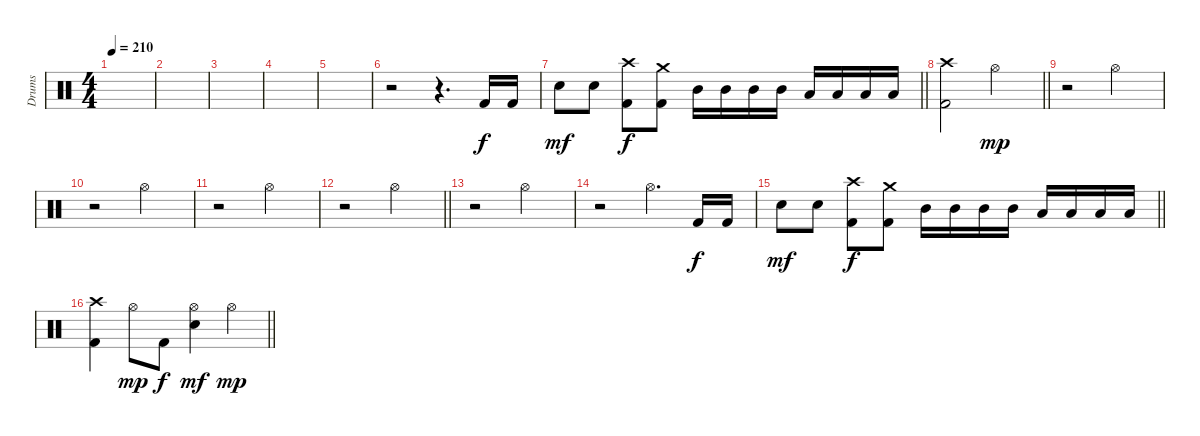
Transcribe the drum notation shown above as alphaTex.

\track ("Drums" "Drums") {instrument percussion}
\staff {score}
\articulation defaults
\ts (4 4)
\tempo 210
\clef neutral
\ks c
|
|
|
|
|
r.2 r.4{d} "Kick (hit) 2".16 "Kick (hit) 2".16 |
\barLineRight lightlight "Electric Snare (hit)".8{dy mf} "Electric Snare (hit)".8
("Crash high (hit)" "Kick (hit) 2").8{dy f} ("Crash medium (hit)" "Kick (hit) 2").8 "Mid Tom (hit)".16 "Mid Tom (hit)".16 "Mid Tom (hit)".16 "Mid Tom (hit)".16 "Low Tom (hit)".16 "Low Tom (hit)".16 "Low Tom (hit)".16 "Low Tom (hit)".16 |
\barLineRight lightlight
("Crash high (hit)" "Kick (hit) 2").2 "Hi-Hat (open)".2{dy mp} |
r.2 "Hi-Hat (open)".2 |
r.2 "Hi-Hat (open)".2 |
r.2 "Hi-Hat (open)".2 |
\barLineRight lightlight
r.2 "Hi-Hat (open)".2 |
r.2 "Hi-Hat (open)".2 |
r.2 "Hi-Hat (open)".4{d} "Kick (hit) 2".16{dy f} "Kick (hit) 2".16 |
\barLineRight lightlight "Electric Snare (hit)".8{dy mf} "Electric Snare (hit)".8
("Crash high (hit)" "Kick (hit) 2").8{dy f} ("Crash medium (hit)" "Kick (hit) 2").8 "Mid Tom (hit)".16 "Mid Tom (hit)".16 "Mid Tom (hit)".16 "Mid Tom (hit)".16 "Low Tom (hit)".16 "Low Tom (hit)".16 "Low Tom (hit)".16 "Low Tom (hit)".16 |
\section ("" "")
\barLineRight lightlight
("Crash high (hit)" "Kick (hit) 2").4 "Hi-Hat (open)".8{dy mp} "Kick (hit) 2".8{dy f} ("Hi-Hat (open)" "Electric Snare (hit)").4{dy mf} "Hi-Hat (open)".4{dy mp}
